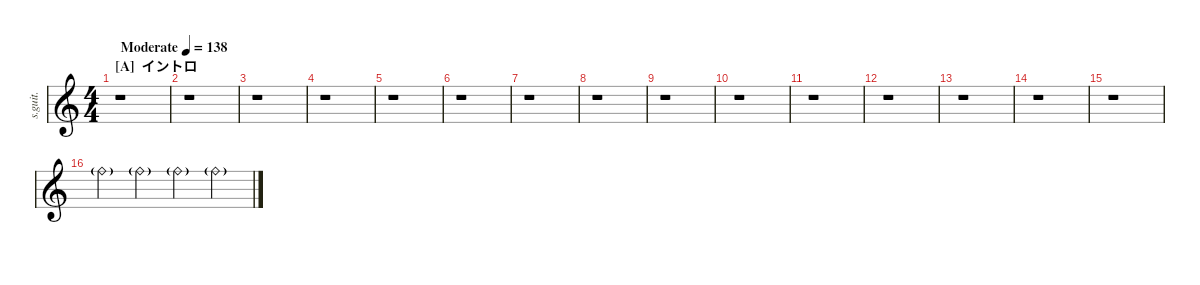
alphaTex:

\defaultSystemsLayout 4
\hideDynamics
\bracketExtendMode nobrackets
\track ("Nathan Camarena" "s.guit.") {instrument percussion}
\staff {score}
\articulation defaults
\ts (4 4)
\beaming (8 2 2 2 2)
\section ("A" " イントロ")
\tempo (138 "Moderate")
\clef g2
\ks c
r.1{dy mp} |
r.1 |
r.1 |
r.1 |
r.1 |
r.1 |
r.1 |
r.1 |
r.1 |
r.1 |
r.1 |
r.1 |
r.1 |
r.1 |
r.1 |
"Ride (bell)"{g}.4{lyrics (0 "") lyrics (1 "") lyrics (2 "") lyrics (3 "") lyrics (4 "")} "Ride (bell)"{g}.4{lyrics (0 "") lyrics (1 "") lyrics (2 "") lyrics (3 "") lyrics (4 "")} "Ride (bell)"{g}.4{lyrics (0 "") lyrics (1 "") lyrics (2 "") lyrics (3 "") lyrics (4 "")} "Ride (bell)"{g}.4{lyrics (0 "") lyrics (1 "") lyrics (2 "") lyrics (3 "") lyrics (4 "")}
